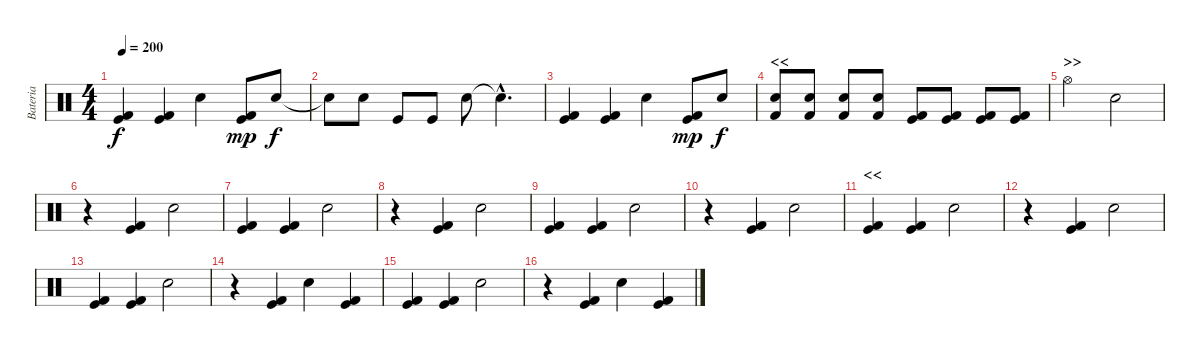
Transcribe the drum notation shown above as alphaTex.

\track ("Bateria" "Bateria") {instrument percussion}
\staff {score}
\articulation defaults
\ts (4 4)
\tempo 200
\clef neutral
\ks c
("Kick (hit) 2" "Kick (hit)").4{dy f} ("Kick (hit) 2" "Kick (hit)").4 "Electric Snare (hit)".4 ("Kick (hit)" "Kick (hit) 2").8{dy mp} "Electric Snare (hit)".8{dy f} |
"Snare (hit)"{t}.8 "Electric Snare (hit)".8 "Kick (hit)".8 "Kick (hit)".8 "Electric Snare (hit)".8 "Snare (hit)"{hac t}.4{d} |
("Kick (hit) 2" "Kick (hit)").4 ("Kick (hit) 2" "Kick (hit)").4 "Electric Snare (hit)".4 ("Kick (hit)" "Kick (hit) 2").8{dy mp} "Electric Snare (hit)".8{dy f} |
\section ("" "<<")
("Electric Snare (hit)" "Kick (hit) 2").8 ("Electric Snare (hit)" "Kick (hit) 2").8 ("Electric Snare (hit)" "Kick (hit) 2").8 ("Electric Snare (hit)" "Kick (hit) 2").8 ("Kick (hit)" "Kick (hit) 2").8 ("Kick (hit)" "Kick (hit) 2").8 ("Kick (hit)" "Kick (hit) 2").8 ("Kick (hit)" "Kick (hit) 2").8 |
\section ("" ">>")
"Hi-Hat (open)".2 "Electric Snare (hit)".2 |
r.4 ("Kick (hit)" "Kick (hit) 2").4 "Electric Snare (hit)".2 |
("Kick (hit)" "Kick (hit) 2").4 ("Kick (hit)" "Kick (hit) 2").4 "Electric Snare (hit)".2 |
r.4 ("Kick (hit)" "Kick (hit) 2").4 "Electric Snare (hit)".2 |
("Kick (hit)" "Kick (hit) 2").4 ("Kick (hit)" "Kick (hit) 2").4 "Electric Snare (hit)".2 |
r.4 ("Kick (hit)" "Kick (hit) 2").4 "Electric Snare (hit)".2 |
\section ("" "<<")
("Kick (hit)" "Kick (hit) 2").4 ("Kick (hit)" "Kick (hit) 2").4 "Electric Snare (hit)".2 |
r.4 ("Kick (hit)" "Kick (hit) 2").4 "Electric Snare (hit)".2 |
("Kick (hit)" "Kick (hit) 2").4 ("Kick (hit)" "Kick (hit) 2").4 "Electric Snare (hit)".2 |
r.4 ("Kick (hit)" "Kick (hit) 2").4 "Electric Snare (hit)".4 ("Kick (hit)" "Kick (hit) 2").4 |
("Kick (hit)" "Kick (hit) 2").4 ("Kick (hit)" "Kick (hit) 2").4 "Electric Snare (hit)".2 |
r.4 ("Kick (hit)" "Kick (hit) 2").4 "Electric Snare (hit)".4 ("Kick (hit)" "Kick (hit) 2").4
